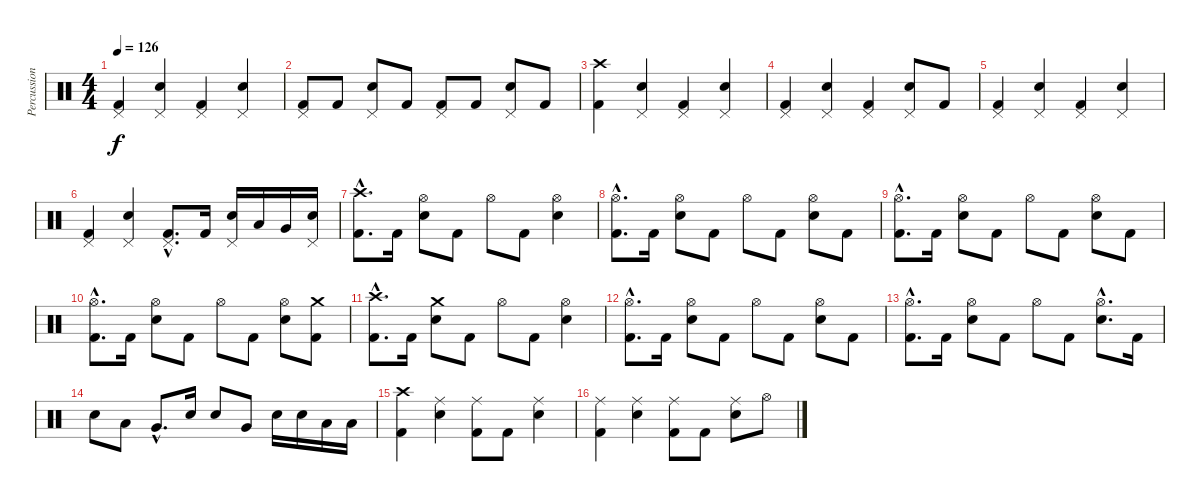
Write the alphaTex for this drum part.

\track ("Percussion" "Percussion") {instrument percussion}
\staff {score}
\articulation defaults
\ts (4 4)
\tempo 126
\clef neutral
\ks c
("Pedal Hi-Hat (hit)" "Kick (hit) 2").4{dy f} ("Pedal Hi-Hat (hit)" "Snare (hit) 2").4 ("Pedal Hi-Hat (hit)" "Kick (hit) 2").4 ("Pedal Hi-Hat (hit)" "Snare (hit) 2").4 |
("Pedal Hi-Hat (hit)" "Kick (hit) 2").8 "Kick (hit) 2".8 ("Pedal Hi-Hat (hit)" "Snare (hit) 2").8 "Kick (hit) 2".8 ("Pedal Hi-Hat (hit)" "Kick (hit) 2").8 "Kick (hit) 2".8 ("Pedal Hi-Hat (hit)" "Snare (hit) 2").8 "Kick (hit) 2".8 |
("Crash high (hit)" "Kick (hit) 2").4 ("Pedal Hi-Hat (hit)" "Snare (hit) 2").4 ("Pedal Hi-Hat (hit)" "Kick (hit) 2").4 ("Pedal Hi-Hat (hit)" "Snare (hit) 2").4 |
("Pedal Hi-Hat (hit)" "Kick (hit) 2").4 ("Pedal Hi-Hat (hit)" "Snare (hit) 2").4 ("Pedal Hi-Hat (hit)" "Kick (hit) 2").4 ("Pedal Hi-Hat (hit)" "Snare (hit) 2").8 "Kick (hit) 2".8 |
("Pedal Hi-Hat (hit)" "Kick (hit) 2").4 ("Pedal Hi-Hat (hit)" "Snare (hit) 2").4 ("Pedal Hi-Hat (hit)" "Kick (hit) 2").4 ("Pedal Hi-Hat (hit)" "Snare (hit) 2").4 |
("Pedal Hi-Hat (hit)" "Kick (hit) 2").4 ("Pedal Hi-Hat (hit)" "Snare (hit) 2").4 ("Pedal Hi-Hat (hit)"{hac} "Kick (hit) 2"{hac}).8{d} "Kick (hit) 2".16 ("Pedal Hi-Hat (hit)" "Snare (hit) 2").16 "Low Tom (hit)".16 "Very Low Tom (hit)".16 ("Pedal Hi-Hat (hit)" "Snare (hit) 2").16 |
("Crash high (hit)"{hac} "Kick (hit) 2"{hac}).8{d} "Kick (hit) 2".16 ("Hi-Hat (open)" "Snare (hit) 2").8 "Kick (hit) 2".8 "Hi-Hat (open)".8 "Kick (hit) 2".8 ("Hi-Hat (open)" "Snare (hit) 2").4 |
("Hi-Hat (open)"{hac} "Kick (hit) 2"{hac}).8{d} "Kick (hit) 2".16 ("Hi-Hat (open)" "Snare (hit) 2").8 "Kick (hit) 2".8 "Hi-Hat (open)".8 "Kick (hit) 2".8 ("Hi-Hat (open)" "Snare (hit) 2").8 "Kick (hit) 2".8 |
("Hi-Hat (open)"{hac} "Kick (hit) 2"{hac}).8{d} "Kick (hit) 2".16 ("Hi-Hat (open)" "Snare (hit) 2").8 "Kick (hit) 2".8 "Hi-Hat (open)".8 "Kick (hit) 2".8 ("Hi-Hat (open)" "Snare (hit) 2").8 "Kick (hit) 2".8 |
("Hi-Hat (open)"{hac} "Kick (hit) 2"{hac}).8{d} "Kick (hit) 2".16 ("Hi-Hat (open)" "Snare (hit) 2").8 "Kick (hit) 2".8 "Hi-Hat (open)".8 "Kick (hit) 2".8 ("Hi-Hat (open)" "Snare (hit) 2").8 ("Crash medium (hit)" "Kick (hit) 2").8 |
("Crash high (hit)"{hac} "Kick (hit) 2"{hac}).8{d} "Kick (hit) 2".16 ("Crash medium (hit)" "Snare (hit) 2").8 "Kick (hit) 2".8 "Hi-Hat (open)".8 "Kick (hit) 2".8 ("Hi-Hat (open)" "Snare (hit) 2").4 |
("Hi-Hat (open)"{hac} "Kick (hit) 2"{hac}).8{d} "Kick (hit) 2".16 ("Hi-Hat (open)" "Snare (hit) 2").8 "Kick (hit) 2".8 "Hi-Hat (open)".8 "Kick (hit) 2".8 ("Hi-Hat (open)" "Snare (hit) 2").8 "Kick (hit) 2".8 |
("Hi-Hat (open)"{hac} "Kick (hit) 2"{hac}).8{d} "Kick (hit) 2".16 ("Hi-Hat (open)" "Snare (hit) 2").8 "Kick (hit) 2".8 "Hi-Hat (open)".8 "Kick (hit) 2".8 ("Hi-Hat (open)"{hac} "Snare (hit) 2"{hac}).8{d} "Kick (hit) 2".16 |
"Snare (hit) 2".8 "Low Tom (hit)".8 "Very Low Tom (hit)"{hac}.8{d} "Snare (hit) 2".16 "Snare (hit) 2".8 "Very Low Tom (hit)".8 "Snare (hit) 2".16 "Snare (hit) 2".16 "Low Floor Tom (hit)".16 "Low Floor Tom (hit)".16 |
("Crash high (hit)" "Kick (hit) 2").4 ("Ride (middle)" "Snare (hit) 2").4 ("Ride (middle)" "Kick (hit) 2").8 "Kick (hit) 2".8 ("Ride (middle)" "Snare (hit) 2").4 |
("Ride (middle)" "Kick (hit) 2").4 ("Ride (middle)" "Snare (hit) 2").4 ("Ride (middle)" "Kick (hit) 2").8 "Kick (hit) 2".8 ("Ride (middle)" "Snare (hit) 2").8 "Hi-Hat (open)".8
